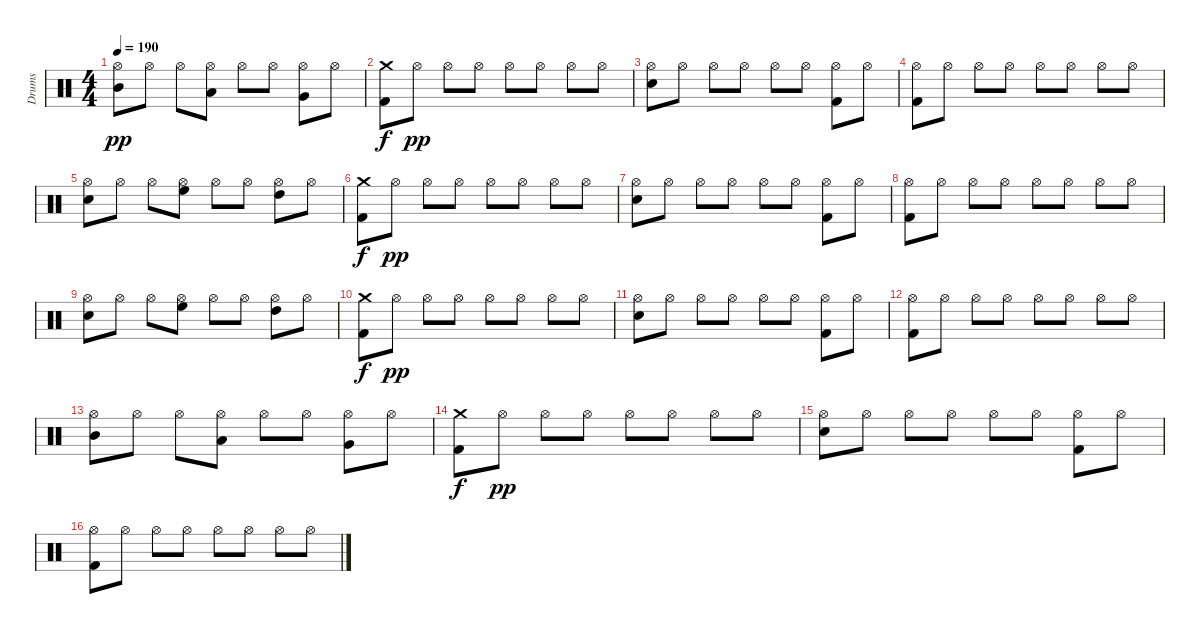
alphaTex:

\track ("Drums" "Drums") {instrument percussion}
\staff {score}
\articulation defaults
\ts (4 4)
\tempo 190
\clef neutral
\ks c
("Hi-Hat (open)" "Mid Tom (hit)").8{dy pp} "Hi-Hat (open)".8 "Hi-Hat (open)".8 ("Hi-Hat (open)" "Low Tom (hit)").8 "Hi-Hat (open)".8 "Hi-Hat (open)".8 ("Hi-Hat (open)" "Very Low Tom (hit)").8 "Hi-Hat (open)".8 |
("Crash medium (hit)" "Kick (hit) 2").8{dy f} "Hi-Hat (open)".8{dy pp} "Hi-Hat (open)".8 "Hi-Hat (open)".8 "Hi-Hat (open)".8 "Hi-Hat (open)".8 "Hi-Hat (open)".8 "Hi-Hat (open)".8 |
("Hi-Hat (open)" "Snare (hit) 2").8 "Hi-Hat (open)".8 "Hi-Hat (open)".8 "Hi-Hat (open)".8 "Hi-Hat (open)".8 "Hi-Hat (open)".8 ("Hi-Hat (open)" "Kick (hit) 2").8 "Hi-Hat (open)".8 |
("Hi-Hat (open)" "Kick (hit) 2").8 "Hi-Hat (open)".8 "Hi-Hat (open)".8 "Hi-Hat (open)".8 "Hi-Hat (open)".8 "Hi-Hat (open)".8 "Hi-Hat (open)".8 "Hi-Hat (open)".8 |
("Hi-Hat (open)" "Snare (hit) 2").8 "Hi-Hat (open)".8 "Hi-Hat (open)".8 ("Hi-Hat (open)" "High Floor Tom (hit)").8 "Hi-Hat (open)".8 "Hi-Hat (open)".8 ("Hi-Hat (open)" "High Tom (hit)").8 "Hi-Hat (open)".8 |
("Crash medium (hit)" "Kick (hit) 2").8{dy f} "Hi-Hat (open)".8{dy pp} "Hi-Hat (open)".8 "Hi-Hat (open)".8 "Hi-Hat (open)".8 "Hi-Hat (open)".8 "Hi-Hat (open)".8 "Hi-Hat (open)".8 |
("Hi-Hat (open)" "Snare (hit) 2").8 "Hi-Hat (open)".8 "Hi-Hat (open)".8 "Hi-Hat (open)".8 "Hi-Hat (open)".8 "Hi-Hat (open)".8 ("Hi-Hat (open)" "Kick (hit) 2").8 "Hi-Hat (open)".8 |
("Hi-Hat (open)" "Kick (hit) 2").8 "Hi-Hat (open)".8 "Hi-Hat (open)".8 "Hi-Hat (open)".8 "Hi-Hat (open)".8 "Hi-Hat (open)".8 "Hi-Hat (open)".8 "Hi-Hat (open)".8 |
("Hi-Hat (open)" "Snare (hit) 2").8 "Hi-Hat (open)".8 "Hi-Hat (open)".8 ("Hi-Hat (open)" "High Floor Tom (hit)").8 "Hi-Hat (open)".8 "Hi-Hat (open)".8 ("Hi-Hat (open)" "High Tom (hit)").8 "Hi-Hat (open)".8 |
("Crash medium (hit)" "Kick (hit) 2").8{dy f} "Hi-Hat (open)".8{dy pp} "Hi-Hat (open)".8 "Hi-Hat (open)".8 "Hi-Hat (open)".8 "Hi-Hat (open)".8 "Hi-Hat (open)".8 "Hi-Hat (open)".8 |
("Hi-Hat (open)" "Snare (hit) 2").8 "Hi-Hat (open)".8 "Hi-Hat (open)".8 "Hi-Hat (open)".8 "Hi-Hat (open)".8 "Hi-Hat (open)".8 ("Hi-Hat (open)" "Kick (hit) 2").8 "Hi-Hat (open)".8 |
("Hi-Hat (open)" "Kick (hit) 2").8 "Hi-Hat (open)".8 "Hi-Hat (open)".8 "Hi-Hat (open)".8 "Hi-Hat (open)".8 "Hi-Hat (open)".8 "Hi-Hat (open)".8 "Hi-Hat (open)".8 |
("Hi-Hat (open)" "Mid Tom (hit)").8 "Hi-Hat (open)".8 "Hi-Hat (open)".8 ("Hi-Hat (open)" "Low Tom (hit)").8 "Hi-Hat (open)".8 "Hi-Hat (open)".8 ("Hi-Hat (open)" "Very Low Tom (hit)").8 "Hi-Hat (open)".8 |
("Crash medium (hit)" "Kick (hit) 2").8{dy f} "Hi-Hat (open)".8{dy pp} "Hi-Hat (open)".8 "Hi-Hat (open)".8 "Hi-Hat (open)".8 "Hi-Hat (open)".8 "Hi-Hat (open)".8 "Hi-Hat (open)".8 |
("Hi-Hat (open)" "Snare (hit) 2").8 "Hi-Hat (open)".8 "Hi-Hat (open)".8 "Hi-Hat (open)".8 "Hi-Hat (open)".8 "Hi-Hat (open)".8 ("Hi-Hat (open)" "Kick (hit) 2").8 "Hi-Hat (open)".8 |
("Hi-Hat (open)" "Kick (hit) 2").8 "Hi-Hat (open)".8 "Hi-Hat (open)".8 "Hi-Hat (open)".8 "Hi-Hat (open)".8 "Hi-Hat (open)".8 "Hi-Hat (open)".8 "Hi-Hat (open)".8
